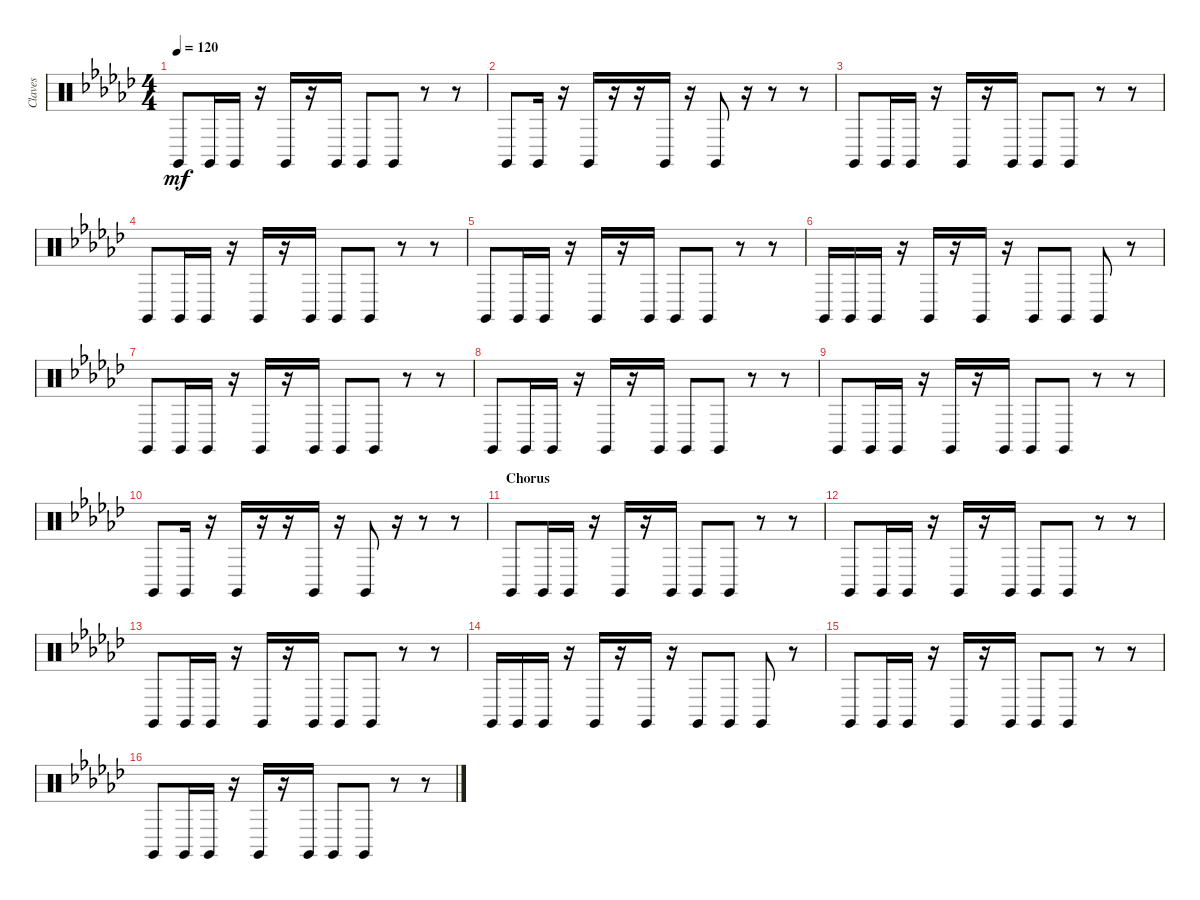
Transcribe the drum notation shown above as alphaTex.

\track ("Claves" "Claves") {instrument percussion}
\staff {score}
\articulation defaults
\ts (4 4)
\tempo 120
\clef neutral
\ks ebminor "Claves (hit)".8{dy mf} "Claves (hit)".16 "Claves (hit)".16
r.16 "Claves (hit)".16 r.16 "Claves (hit)".16 "Claves (hit)".8 "Claves (hit)".8 r.8 r.8 |
"Claves (hit)".8 "Claves (hit)".16 r.16 "Claves (hit)".16 r.16 r.16 "Claves (hit)".16 r.16 "Claves (hit)".8 r.16 r.8 r.8 |
"Claves (hit)".8 "Claves (hit)".16 "Claves (hit)".16 r.16 "Claves (hit)".16 r.16 "Claves (hit)".16 "Claves (hit)".8 "Claves (hit)".8 r.8 r.8 |
"Claves (hit)".8 "Claves (hit)".16 "Claves (hit)".16 r.16 "Claves (hit)".16 r.16 "Claves (hit)".16 "Claves (hit)".8 "Claves (hit)".8 r.8 r.8 |
"Claves (hit)".8 "Claves (hit)".16 "Claves (hit)".16 r.16 "Claves (hit)".16 r.16 "Claves (hit)".16 "Claves (hit)".8 "Claves (hit)".8 r.8 r.8 |
"Claves (hit)".16 "Claves (hit)".16 "Claves (hit)".16 r.16 "Claves (hit)".16 r.16 "Claves (hit)".16 r.16 "Claves (hit)".8 "Claves (hit)".8 "Claves (hit)".8 r.8 |
"Claves (hit)".8 "Claves (hit)".16 "Claves (hit)".16 r.16 "Claves (hit)".16 r.16 "Claves (hit)".16 "Claves (hit)".8 "Claves (hit)".8 r.8 r.8 |
"Claves (hit)".8 "Claves (hit)".16 "Claves (hit)".16 r.16 "Claves (hit)".16 r.16 "Claves (hit)".16 "Claves (hit)".8 "Claves (hit)".8 r.8 r.8 |
"Claves (hit)".8 "Claves (hit)".16 "Claves (hit)".16 r.16 "Claves (hit)".16 r.16 "Claves (hit)".16 "Claves (hit)".8 "Claves (hit)".8 r.8 r.8 |
"Claves (hit)".8 "Claves (hit)".16 r.16 "Claves (hit)".16 r.16 r.16 "Claves (hit)".16 r.16 "Claves (hit)".8 r.16 r.8 r.8 |
\section ("" "Chorus")
"Claves (hit)".8 "Claves (hit)".16 "Claves (hit)".16 r.16 "Claves (hit)".16 r.16 "Claves (hit)".16 "Claves (hit)".8 "Claves (hit)".8 r.8 r.8 |
"Claves (hit)".8 "Claves (hit)".16 "Claves (hit)".16 r.16 "Claves (hit)".16 r.16 "Claves (hit)".16 "Claves (hit)".8 "Claves (hit)".8 r.8 r.8 |
"Claves (hit)".8 "Claves (hit)".16 "Claves (hit)".16 r.16 "Claves (hit)".16 r.16 "Claves (hit)".16 "Claves (hit)".8 "Claves (hit)".8 r.8 r.8 |
"Claves (hit)".16 "Claves (hit)".16 "Claves (hit)".16 r.16 "Claves (hit)".16 r.16 "Claves (hit)".16 r.16 "Claves (hit)".8 "Claves (hit)".8 "Claves (hit)".8 r.8 |
"Claves (hit)".8 "Claves (hit)".16 "Claves (hit)".16 r.16 "Claves (hit)".16 r.16 "Claves (hit)".16 "Claves (hit)".8 "Claves (hit)".8 r.8 r.8 |
"Claves (hit)".8 "Claves (hit)".16 "Claves (hit)".16 r.16 "Claves (hit)".16 r.16 "Claves (hit)".16 "Claves (hit)".8 "Claves (hit)".8 r.8 r.8
